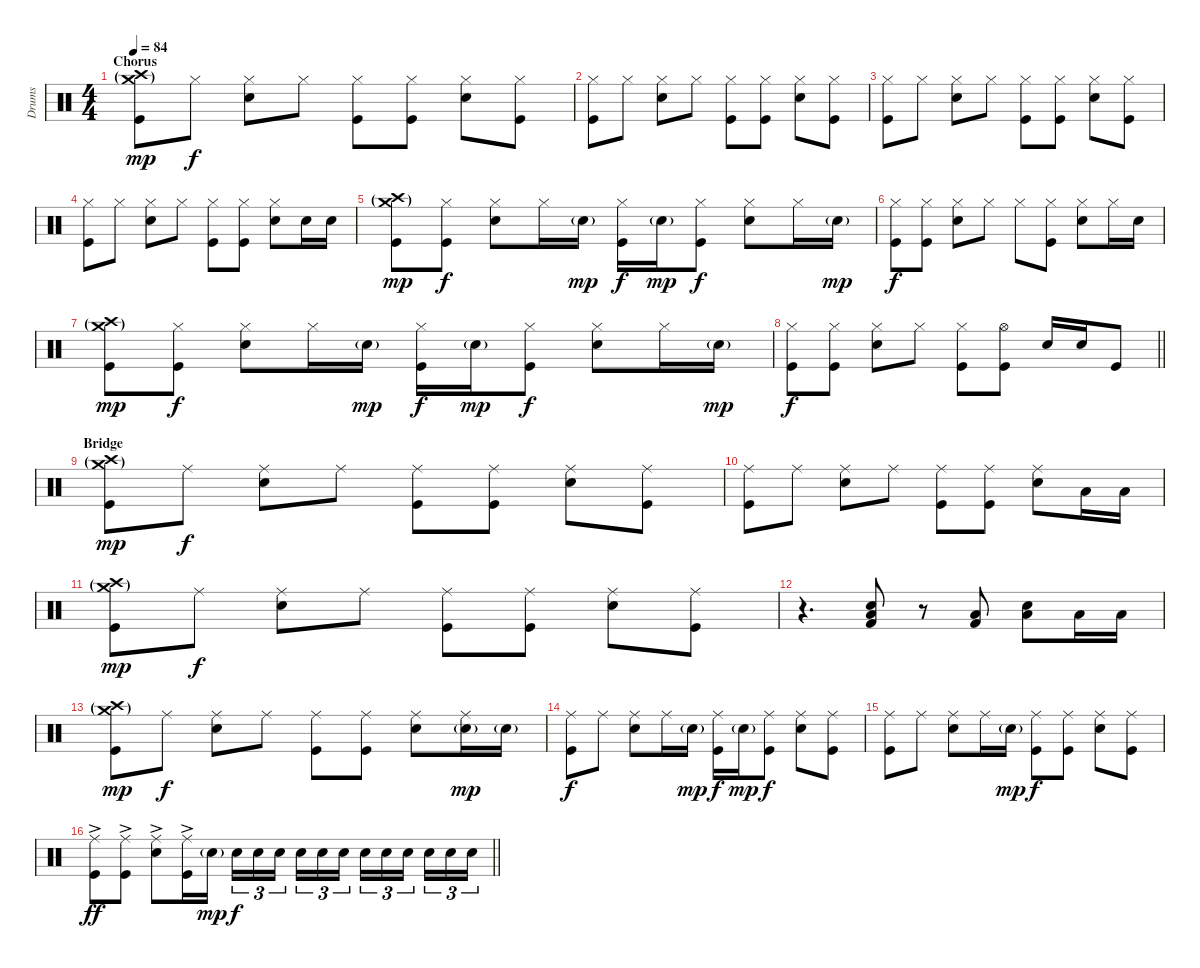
\track ("Drums" "Drums") {instrument percussion}
\staff {score}
\articulation defaults
\ts (4 4)
\section ("" "Chorus")
\tempo 84
\clef neutral
\ks c
("Crash high (hit)"{g} "Crash medium (hit)"{g} "Kick (hit)").8{dy mp} "Hi-Hat (closed)".8{dy f} ("Hi-Hat (closed)" "Snare (hit) 2").8 "Hi-Hat (closed)".8 ("Hi-Hat (closed)" "Kick (hit)").8 ("Hi-Hat (closed)" "Kick (hit)").8 ("Hi-Hat (closed)" "Snare (hit) 2").8 ("Hi-Hat (closed)" "Kick (hit)").8 |
("Hi-Hat (closed)" "Kick (hit)").8 "Hi-Hat (closed)".8 ("Hi-Hat (closed)" "Snare (hit) 2").8 "Hi-Hat (closed)".8 ("Hi-Hat (closed)" "Kick (hit)").8 ("Hi-Hat (closed)" "Kick (hit)").8 ("Hi-Hat (closed)" "Snare (hit) 2").8 ("Hi-Hat (closed)" "Kick (hit)").8 |
("Hi-Hat (closed)" "Kick (hit)").8 "Hi-Hat (closed)".8 ("Hi-Hat (closed)" "Snare (hit) 2").8 "Hi-Hat (closed)".8 ("Hi-Hat (closed)" "Kick (hit)").8 ("Hi-Hat (closed)" "Kick (hit)").8 ("Hi-Hat (closed)" "Snare (hit) 2").8 ("Hi-Hat (closed)" "Kick (hit)").8 |
("Hi-Hat (closed)" "Kick (hit)").8 "Hi-Hat (closed)".8 ("Hi-Hat (closed)" "Snare (hit) 2").8 "Hi-Hat (closed)".8 ("Hi-Hat (closed)" "Kick (hit)").8 ("Hi-Hat (closed)" "Kick (hit)").8 ("Hi-Hat (closed)" "Snare (hit) 2").8 "Snare (hit) 2".16 "Snare (hit) 2".16 |
("Crash high (hit)"{g} "Crash medium (hit)"{g} "Kick (hit)").8{dy mp} ("Hi-Hat (closed)" "Kick (hit)").8{dy f} ("Hi-Hat (closed)" "Snare (hit) 2").8 "Hi-Hat (closed)".16 "Snare (hit) 2"{g}.16{dy mp} ("Hi-Hat (closed)" "Kick (hit)").16{dy f} "Snare (hit) 2"{g}.16{dy mp} ("Hi-Hat (closed)" "Kick (hit)").8{dy f} ("Hi-Hat (closed)" "Snare (hit) 2").8 "Hi-Hat (closed)".16 "Snare (hit) 2"{g}.16{dy mp} |
("Hi-Hat (closed)" "Kick (hit)").8{dy f} ("Hi-Hat (closed)" "Kick (hit)").8 ("Hi-Hat (closed)" "Snare (hit) 2").8 "Hi-Hat (closed)".8 "Hi-Hat (closed)".8 ("Hi-Hat (closed)" "Kick (hit)").8 ("Hi-Hat (closed)" "Snare (hit) 2").8 "Hi-Hat (closed)".16 "Snare (hit) 2".16 |
("Crash high (hit)"{g} "Crash medium (hit)"{g} "Kick (hit)").8{dy mp} ("Hi-Hat (closed)" "Kick (hit)").8{dy f} ("Hi-Hat (closed)" "Snare (hit) 2").8 "Hi-Hat (closed)".16 "Snare (hit) 2"{g}.16{dy mp} ("Hi-Hat (closed)" "Kick (hit)").16{dy f} "Snare (hit) 2"{g}.16{dy mp} ("Hi-Hat (closed)" "Kick (hit)").8{dy f} ("Hi-Hat (closed)" "Snare (hit) 2").8 "Hi-Hat (closed)".16 "Snare (hit) 2"{g}.16{dy mp} |
\barLineRight lightlight
("Hi-Hat (closed)" "Kick (hit)").8{dy f} ("Hi-Hat (closed)" "Kick (hit)").8 ("Hi-Hat (closed)" "Snare (hit) 2").8 "Hi-Hat (closed)".8 ("Hi-Hat (closed)" "Kick (hit)").8 ("Hi-Hat (open)" "Kick (hit)").8 "Snare (hit) 2".16 "Snare (hit) 2".16 "Kick (hit)".8 |
\section ("" "Bridge")
("Crash medium (hit)"{g} "Crash high (hit)"{g} "Kick (hit)").8{dy mp} "Ride (middle)".8{dy f} ("Ride (middle)" "Snare (hit) 2").8 "Ride (middle)".8 ("Ride (middle)" "Kick (hit)").8 ("Ride (middle)" "Kick (hit)").8 ("Ride (middle)" "Snare (hit) 2").8 ("Ride (middle)" "Kick (hit)").8 |
("Ride (middle)" "Kick (hit)").8 "Ride (middle)".8 ("Ride (middle)" "Snare (hit) 2").8 "Ride (middle)".8 ("Ride (middle)" "Kick (hit)").8 ("Ride (middle)" "Kick (hit)").8 ("Ride (middle)" "Snare (hit) 2").8 "Low Tom (hit)".16 "Low Floor Tom (hit)".16 |
("Crash medium (hit)"{g} "Crash high (hit)"{g} "Kick (hit)").8{dy mp} "Ride (middle)".8{dy f} ("Ride (middle)" "Snare (hit) 2").8 "Ride (middle)".8 ("Ride (middle)" "Kick (hit)").8 ("Ride (middle)" "Kick (hit)").8 ("Ride (middle)" "Snare (hit) 2").8 ("Ride (middle)" "Kick (hit)").8 |
r.4{d volume 0} ("Snare (hit) 2" "Low Floor Tom (hit)" "Kick (hit) 2").8{volume 13} r.8 ("Low Floor Tom (hit)" "Kick (hit) 2").8 ("Snare (hit) 2" "Low Floor Tom (hit)").8 "Low Tom (hit)".16 "Low Floor Tom (hit)".16 |
("Crash medium (hit)"{g} "Crash high (hit)"{g} "Kick (hit)").8{dy mp} "Ride (middle)".8{dy f} ("Ride (middle)" "Snare (hit) 2").8 "Ride (middle)".8 ("Ride (middle)" "Kick (hit)").8 ("Ride (middle)" "Kick (hit)").8 ("Ride (middle)" "Snare (hit) 2").8 ("Ride (middle)" "Snare (hit) 2"{g}).16{dy mp} "Snare (hit) 2"{g}.16 |
("Ride (middle)" "Kick (hit)").8{dy f} "Ride (middle)".8 ("Ride (middle)" "Snare (hit) 2").8 "Ride (middle)".16 "Snare (hit) 2"{g}.16{dy mp} ("Ride (middle)" "Kick (hit)").16{dy f} "Snare (hit) 2"{g}.16{dy mp} ("Ride (middle)" "Kick (hit)").8{dy f} ("Ride (middle)" "Snare (hit) 2").8 ("Ride (middle)" "Kick (hit)").8 |
("Ride (middle)" "Kick (hit)").8 "Ride (middle)".8 ("Ride (middle)" "Snare (hit) 2").8 "Ride (middle)".16 "Snare (hit) 2"{g}.16{dy mp} ("Ride (middle)" "Kick (hit)").8{dy f} ("Ride (middle)" "Kick (hit)").8 ("Ride (middle)" "Snare (hit) 2").8 ("Ride (middle)" "Kick (hit)").8 |
\barLineRight lightlight
("Ride (middle)"{ac} "Kick (hit)").8{dy ff} ("Ride (middle)"{ac} "Kick (hit)").8 ("Ride (middle)"{ac} "Snare (hit) 2").8 ("Ride (middle)"{ac} "Kick (hit)").16 "Snare (hit) 2"{g}.16{dy mp} "Snare (hit) 2".16{tu (3 2) dy f} "Snare (hit) 2".16{tu (3 2)} "Snare (hit) 2".16{tu (3 2) beam splitsecondary} "Snare (hit) 2".16{tu (3 2)} "Snare (hit) 2".16{tu (3 2)} "Snare (hit) 2".16{tu (3 2)} "Snare (hit) 2".16{tu (3 2)} "Snare (hit) 2".16{tu (3 2)} "Snare (hit) 2".16{tu (3 2) beam splitsecondary} "Snare (hit) 2".16{tu (3 2)} "Snare (hit) 2".16{tu (3 2)} "Snare (hit) 2".16{tu (3 2)}
